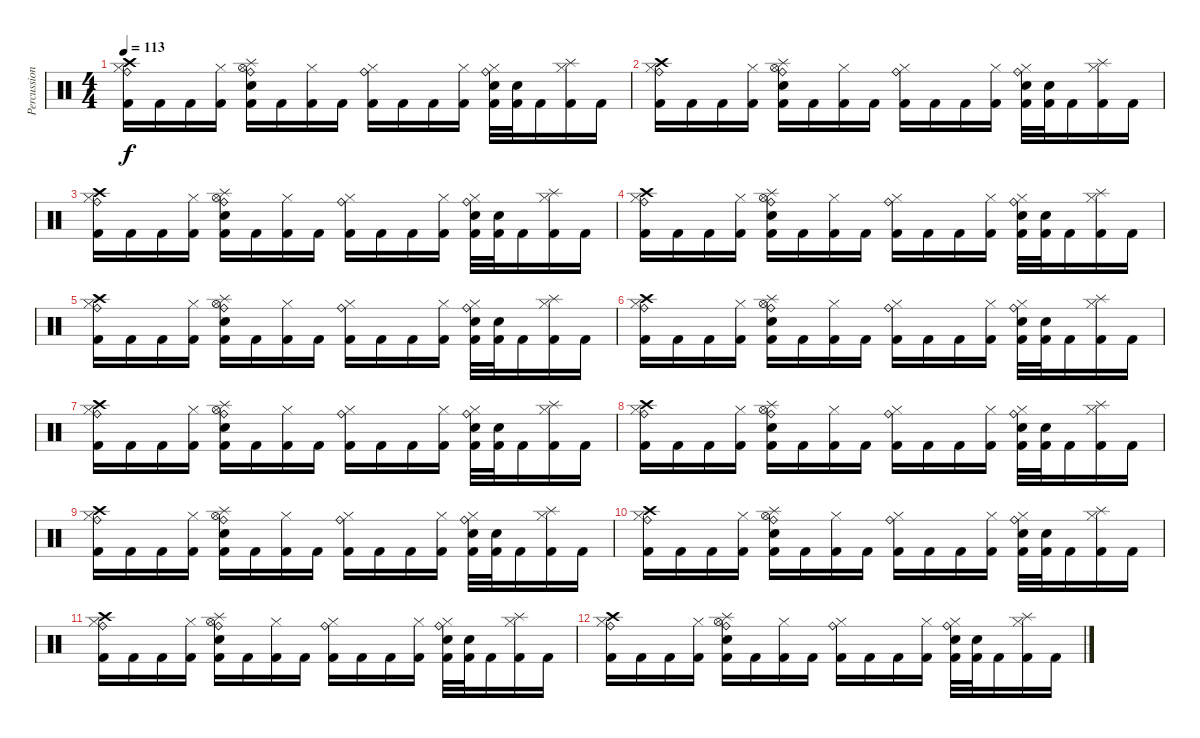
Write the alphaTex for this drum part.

\track ("Percussion" "Percussion") {instrument percussion}
\staff {score}
\articulation defaults
\ts (4 4)
\tempo 113
\clef neutral
\ks c
("Ride (bell)" "Crash high (hit)" "Hi-Hat (closed)" "Kick (hit) 2").16{dy f} "Kick (hit) 2".16 "Kick (hit) 2".16 ("Hi-Hat (closed)" "Kick (hit) 2").16 ("Ride (bell)" "Hi-Hat (open)" "Splash (hit)" "Snare (hit) 2" "Kick (hit) 2").16 "Kick (hit) 2".16 ("Hi-Hat (closed)" "Kick (hit) 2").16 "Kick (hit) 2".16 ("Ride (bell)" "Hi-Hat (closed)" "Kick (hit) 2").16 "Kick (hit) 2".16 "Kick (hit) 2".16 ("Hi-Hat (closed)" "Kick (hit) 2").16 ("Ride (bell)" "Hi-Hat (closed)" "Snare (hit) 2" "Kick (hit) 2").32 ("Snare (hit) 2" "Kick (hit) 2").32 "Kick (hit) 2".16 ("Hi-Hat (closed)" "Splash (hit)" "Kick (hit) 2").16 "Kick (hit) 2".16 |
("Ride (bell)" "Crash high (hit)" "Hi-Hat (closed)" "Kick (hit) 2").16 "Kick (hit) 2".16 "Kick (hit) 2".16 ("Hi-Hat (closed)" "Kick (hit) 2").16 ("Ride (bell)" "Hi-Hat (open)" "Splash (hit)" "Snare (hit) 2" "Kick (hit) 2").16 "Kick (hit) 2".16 ("Hi-Hat (closed)" "Kick (hit) 2").16 "Kick (hit) 2".16 ("Ride (bell)" "Hi-Hat (closed)" "Kick (hit) 2").16 "Kick (hit) 2".16 "Kick (hit) 2".16 ("Hi-Hat (closed)" "Kick (hit) 2").16 ("Ride (bell)" "Hi-Hat (closed)" "Snare (hit) 2" "Kick (hit) 2").32 ("Snare (hit) 2" "Kick (hit) 2").32 "Kick (hit) 2".16 ("Hi-Hat (closed)" "Splash (hit)" "Kick (hit) 2").16 "Kick (hit) 2".16 |
("Ride (bell)" "Crash high (hit)" "Hi-Hat (closed)" "Kick (hit) 2").16 "Kick (hit) 2".16 "Kick (hit) 2".16 ("Hi-Hat (closed)" "Kick (hit) 2").16 ("Ride (bell)" "Hi-Hat (open)" "Splash (hit)" "Snare (hit) 2" "Kick (hit) 2").16 "Kick (hit) 2".16 ("Hi-Hat (closed)" "Kick (hit) 2").16 "Kick (hit) 2".16 ("Ride (bell)" "Hi-Hat (closed)" "Kick (hit) 2").16 "Kick (hit) 2".16 "Kick (hit) 2".16 ("Hi-Hat (closed)" "Kick (hit) 2").16 ("Ride (bell)" "Hi-Hat (closed)" "Snare (hit) 2" "Kick (hit) 2").32 ("Snare (hit) 2" "Kick (hit) 2").32 "Kick (hit) 2".16 ("Hi-Hat (closed)" "Splash (hit)" "Kick (hit) 2").16 "Kick (hit) 2".16 |
("Ride (bell)" "Crash high (hit)" "Hi-Hat (closed)" "Kick (hit) 2").16 "Kick (hit) 2".16 "Kick (hit) 2".16 ("Hi-Hat (closed)" "Kick (hit) 2").16 ("Ride (bell)" "Hi-Hat (open)" "Splash (hit)" "Snare (hit) 2" "Kick (hit) 2").16 "Kick (hit) 2".16 ("Hi-Hat (closed)" "Kick (hit) 2").16 "Kick (hit) 2".16 ("Ride (bell)" "Hi-Hat (closed)" "Kick (hit) 2").16 "Kick (hit) 2".16 "Kick (hit) 2".16 ("Hi-Hat (closed)" "Kick (hit) 2").16 ("Ride (bell)" "Hi-Hat (closed)" "Snare (hit) 2" "Kick (hit) 2").32 ("Snare (hit) 2" "Kick (hit) 2").32 "Kick (hit) 2".16 ("Hi-Hat (closed)" "Splash (hit)" "Kick (hit) 2").16 "Kick (hit) 2".16 |
("Ride (bell)" "Crash high (hit)" "Hi-Hat (closed)" "Kick (hit) 2").16 "Kick (hit) 2".16 "Kick (hit) 2".16 ("Hi-Hat (closed)" "Kick (hit) 2").16 ("Ride (bell)" "Hi-Hat (open)" "Splash (hit)" "Snare (hit) 2" "Kick (hit) 2").16 "Kick (hit) 2".16 ("Hi-Hat (closed)" "Kick (hit) 2").16 "Kick (hit) 2".16 ("Ride (bell)" "Hi-Hat (closed)" "Kick (hit) 2").16 "Kick (hit) 2".16 "Kick (hit) 2".16 ("Hi-Hat (closed)" "Kick (hit) 2").16 ("Ride (bell)" "Hi-Hat (closed)" "Snare (hit) 2" "Kick (hit) 2").32 ("Snare (hit) 2" "Kick (hit) 2").32 "Kick (hit) 2".16 ("Hi-Hat (closed)" "Splash (hit)" "Kick (hit) 2").16 "Kick (hit) 2".16 |
("Ride (bell)" "Crash high (hit)" "Hi-Hat (closed)" "Kick (hit) 2").16 "Kick (hit) 2".16 "Kick (hit) 2".16 ("Hi-Hat (closed)" "Kick (hit) 2").16 ("Ride (bell)" "Hi-Hat (open)" "Splash (hit)" "Snare (hit) 2" "Kick (hit) 2").16 "Kick (hit) 2".16 ("Hi-Hat (closed)" "Kick (hit) 2").16 "Kick (hit) 2".16 ("Ride (bell)" "Hi-Hat (closed)" "Kick (hit) 2").16 "Kick (hit) 2".16 "Kick (hit) 2".16 ("Hi-Hat (closed)" "Kick (hit) 2").16 ("Ride (bell)" "Hi-Hat (closed)" "Snare (hit) 2" "Kick (hit) 2").32 ("Snare (hit) 2" "Kick (hit) 2").32 "Kick (hit) 2".16 ("Hi-Hat (closed)" "Splash (hit)" "Kick (hit) 2").16 "Kick (hit) 2".16 |
("Ride (bell)" "Crash high (hit)" "Hi-Hat (closed)" "Kick (hit) 2").16 "Kick (hit) 2".16 "Kick (hit) 2".16 ("Hi-Hat (closed)" "Kick (hit) 2").16 ("Ride (bell)" "Hi-Hat (open)" "Splash (hit)" "Snare (hit) 2" "Kick (hit) 2").16 "Kick (hit) 2".16 ("Hi-Hat (closed)" "Kick (hit) 2").16 "Kick (hit) 2".16 ("Ride (bell)" "Hi-Hat (closed)" "Kick (hit) 2").16 "Kick (hit) 2".16 "Kick (hit) 2".16 ("Hi-Hat (closed)" "Kick (hit) 2").16 ("Ride (bell)" "Hi-Hat (closed)" "Snare (hit) 2" "Kick (hit) 2").32 ("Snare (hit) 2" "Kick (hit) 2").32 "Kick (hit) 2".16 ("Hi-Hat (closed)" "Splash (hit)" "Kick (hit) 2").16 "Kick (hit) 2".16 |
("Ride (bell)" "Crash high (hit)" "Hi-Hat (closed)" "Kick (hit) 2").16 "Kick (hit) 2".16 "Kick (hit) 2".16 ("Hi-Hat (closed)" "Kick (hit) 2").16 ("Ride (bell)" "Hi-Hat (open)" "Splash (hit)" "Snare (hit) 2" "Kick (hit) 2").16 "Kick (hit) 2".16 ("Hi-Hat (closed)" "Kick (hit) 2").16 "Kick (hit) 2".16 ("Ride (bell)" "Hi-Hat (closed)" "Kick (hit) 2").16 "Kick (hit) 2".16 "Kick (hit) 2".16 ("Hi-Hat (closed)" "Kick (hit) 2").16 ("Ride (bell)" "Hi-Hat (closed)" "Snare (hit) 2" "Kick (hit) 2").32 ("Snare (hit) 2" "Kick (hit) 2").32 "Kick (hit) 2".16 ("Hi-Hat (closed)" "Splash (hit)" "Kick (hit) 2").16 "Kick (hit) 2".16 |
("Ride (bell)" "Crash high (hit)" "Hi-Hat (closed)" "Kick (hit) 2").16 "Kick (hit) 2".16 "Kick (hit) 2".16 ("Hi-Hat (closed)" "Kick (hit) 2").16 ("Ride (bell)" "Hi-Hat (open)" "Splash (hit)" "Snare (hit) 2" "Kick (hit) 2").16 "Kick (hit) 2".16 ("Hi-Hat (closed)" "Kick (hit) 2").16 "Kick (hit) 2".16 ("Ride (bell)" "Hi-Hat (closed)" "Kick (hit) 2").16 "Kick (hit) 2".16 "Kick (hit) 2".16 ("Hi-Hat (closed)" "Kick (hit) 2").16 ("Ride (bell)" "Hi-Hat (closed)" "Snare (hit) 2" "Kick (hit) 2").32 ("Snare (hit) 2" "Kick (hit) 2").32 "Kick (hit) 2".16 ("Hi-Hat (closed)" "Splash (hit)" "Kick (hit) 2").16 "Kick (hit) 2".16 |
("Ride (bell)" "Crash high (hit)" "Hi-Hat (closed)" "Kick (hit) 2").16 "Kick (hit) 2".16 "Kick (hit) 2".16 ("Hi-Hat (closed)" "Kick (hit) 2").16 ("Ride (bell)" "Hi-Hat (open)" "Splash (hit)" "Snare (hit) 2" "Kick (hit) 2").16 "Kick (hit) 2".16 ("Hi-Hat (closed)" "Kick (hit) 2").16 "Kick (hit) 2".16 ("Ride (bell)" "Hi-Hat (closed)" "Kick (hit) 2").16 "Kick (hit) 2".16 "Kick (hit) 2".16 ("Hi-Hat (closed)" "Kick (hit) 2").16 ("Ride (bell)" "Hi-Hat (closed)" "Snare (hit) 2" "Kick (hit) 2").32 ("Snare (hit) 2" "Kick (hit) 2").32 "Kick (hit) 2".16 ("Hi-Hat (closed)" "Splash (hit)" "Kick (hit) 2").16 "Kick (hit) 2".16 |
("Ride (bell)" "Crash high (hit)" "Hi-Hat (closed)" "Kick (hit) 2").16 "Kick (hit) 2".16 "Kick (hit) 2".16 ("Hi-Hat (closed)" "Kick (hit) 2").16 ("Ride (bell)" "Hi-Hat (open)" "Splash (hit)" "Snare (hit) 2" "Kick (hit) 2").16 "Kick (hit) 2".16 ("Hi-Hat (closed)" "Kick (hit) 2").16 "Kick (hit) 2".16 ("Ride (bell)" "Hi-Hat (closed)" "Kick (hit) 2").16 "Kick (hit) 2".16 "Kick (hit) 2".16 ("Hi-Hat (closed)" "Kick (hit) 2").16 ("Ride (bell)" "Hi-Hat (closed)" "Snare (hit) 2" "Kick (hit) 2").32 ("Snare (hit) 2" "Kick (hit) 2").32 "Kick (hit) 2".16 ("Hi-Hat (closed)" "Splash (hit)" "Kick (hit) 2").16 "Kick (hit) 2".16 |
("Ride (bell)" "Crash high (hit)" "Hi-Hat (closed)" "Kick (hit) 2").16 "Kick (hit) 2".16 "Kick (hit) 2".16 ("Hi-Hat (closed)" "Kick (hit) 2").16 ("Ride (bell)" "Hi-Hat (open)" "Splash (hit)" "Snare (hit) 2" "Kick (hit) 2").16 "Kick (hit) 2".16 ("Hi-Hat (closed)" "Kick (hit) 2").16 "Kick (hit) 2".16 ("Ride (bell)" "Hi-Hat (closed)" "Kick (hit) 2").16 "Kick (hit) 2".16 "Kick (hit) 2".16 ("Hi-Hat (closed)" "Kick (hit) 2").16 ("Ride (bell)" "Hi-Hat (closed)" "Snare (hit) 2" "Kick (hit) 2").32 ("Snare (hit) 2" "Kick (hit) 2").32 "Kick (hit) 2".16 ("Hi-Hat (closed)" "Splash (hit)" "Kick (hit) 2").16 "Kick (hit) 2".16
